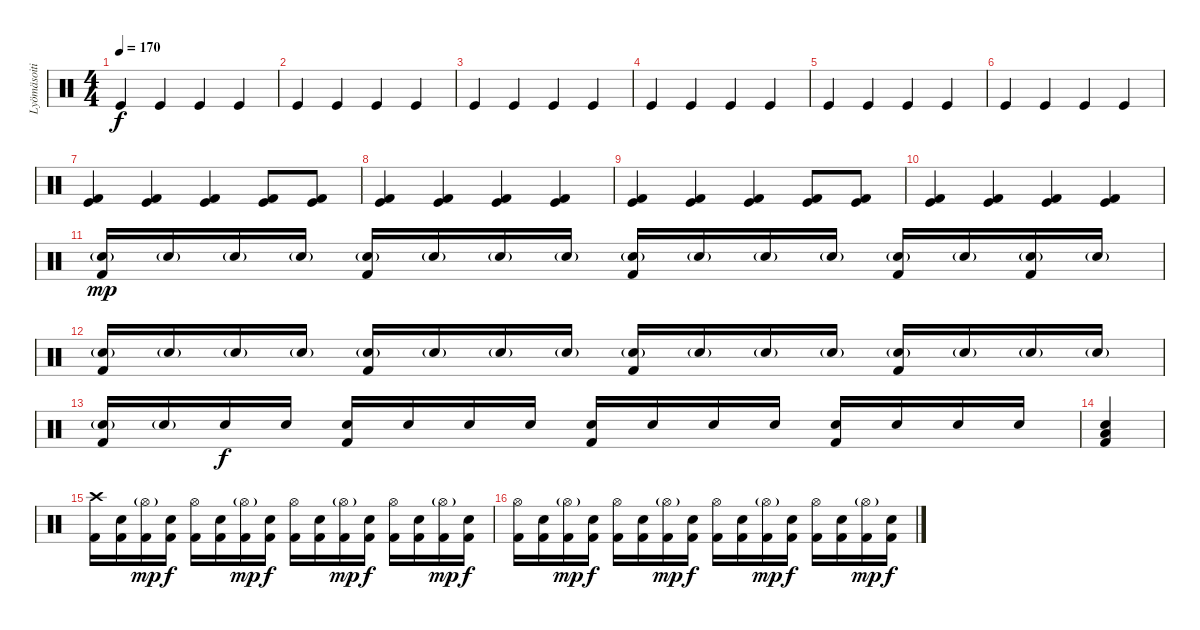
\track ("Lyömäsoitin" "Lyömäsoiti") {instrument percussion}
\staff {score}
\articulation defaults
\ts (4 4)
\tempo 170
\clef neutral
\ks c "Kick (hit)".4{dy f} "Kick (hit)".4 "Kick (hit)".4 "Kick (hit)".4
|
"Kick (hit)".4 "Kick (hit)".4 "Kick (hit)".4 "Kick (hit)".4 |
"Kick (hit)".4 "Kick (hit)".4 "Kick (hit)".4 "Kick (hit)".4 |
"Kick (hit)".4 "Kick (hit)".4 "Kick (hit)".4 "Kick (hit)".4 |
"Kick (hit)".4 "Kick (hit)".4 "Kick (hit)".4 "Kick (hit)".4 |
"Kick (hit)".4 "Kick (hit)".4 "Kick (hit)".4 "Kick (hit)".4 |
("Kick (hit)" "Kick (hit) 2").4 ("Kick (hit)" "Kick (hit) 2").4 ("Kick (hit)" "Kick (hit) 2").4 ("Kick (hit)" "Kick (hit) 2").8 ("Kick (hit)" "Kick (hit) 2").8 |
("Kick (hit)" "Kick (hit) 2").4 ("Kick (hit)" "Kick (hit) 2").4 ("Kick (hit)" "Kick (hit) 2").4 ("Kick (hit)" "Kick (hit) 2").4 |
("Kick (hit)" "Kick (hit) 2").4 ("Kick (hit)" "Kick (hit) 2").4 ("Kick (hit)" "Kick (hit) 2").4 ("Kick (hit)" "Kick (hit) 2").8 ("Kick (hit)" "Kick (hit) 2").8 |
("Kick (hit)" "Kick (hit) 2").4 ("Kick (hit)" "Kick (hit) 2").4 ("Kick (hit)" "Kick (hit) 2").4 ("Kick (hit)" "Kick (hit) 2").4 |
("Kick (hit) 2" "Electric Snare (hit)"{g}).16{dy mp} "Electric Snare (hit)"{g}.16 "Electric Snare (hit)"{g}.16 "Electric Snare (hit)"{g}.16 ("Kick (hit) 2" "Electric Snare (hit)"{g}).16 "Electric Snare (hit)"{g}.16 "Electric Snare (hit)"{g}.16 "Electric Snare (hit)"{g}.16 ("Kick (hit) 2" "Electric Snare (hit)"{g}).16 "Electric Snare (hit)"{g}.16 "Electric Snare (hit)"{g}.16 "Electric Snare (hit)"{g}.16 ("Kick (hit) 2" "Electric Snare (hit)"{g}).16 "Electric Snare (hit)"{g}.16 ("Kick (hit) 2" "Electric Snare (hit)"{g}).16 "Electric Snare (hit)"{g}.16 |
("Kick (hit) 2" "Electric Snare (hit)"{g}).16 "Electric Snare (hit)"{g}.16 "Electric Snare (hit)"{g}.16 "Electric Snare (hit)"{g}.16 ("Kick (hit) 2" "Electric Snare (hit)"{g}).16 "Electric Snare (hit)"{g}.16 "Electric Snare (hit)"{g}.16 "Electric Snare (hit)"{g}.16 ("Kick (hit) 2" "Electric Snare (hit)"{g}).16 "Electric Snare (hit)"{g}.16 "Electric Snare (hit)"{g}.16 "Electric Snare (hit)"{g}.16 ("Kick (hit) 2" "Electric Snare (hit)"{g}).16 "Electric Snare (hit)"{g}.16 "Electric Snare (hit)"{g}.16 "Electric Snare (hit)"{g}.16 |
("Kick (hit) 2" "Electric Snare (hit)"{g}).16 "Electric Snare (hit)"{g}.16 "Electric Snare (hit)".16{dy f} "Electric Snare (hit)".16 ("Kick (hit) 2" "Electric Snare (hit)").16 "Electric Snare (hit)".16 "Electric Snare (hit)".16 "Electric Snare (hit)".16 ("Kick (hit) 2" "Electric Snare (hit)").16 "Electric Snare (hit)".16 "Electric Snare (hit)".16 "Electric Snare (hit)".16 ("Kick (hit) 2" "Electric Snare (hit)").16 "Electric Snare (hit)".16 "Electric Snare (hit)".16 "Electric Snare (hit)".16 |
("Kick (hit) 2" "Electric Snare (hit)" "Low Tom (hit)").4 |
("Kick (hit) 2" "Crash high (hit)").16 ("Kick (hit) 2" "Electric Snare (hit)").16 ("Kick (hit) 2" "Hi-Hat (open)"{g}).16{dy mp} ("Kick (hit) 2" "Electric Snare (hit)").16{dy f} ("Kick (hit) 2" "Hi-Hat (open)").16 ("Kick (hit) 2" "Electric Snare (hit)").16 ("Kick (hit) 2" "Hi-Hat (open)"{g}).16{dy mp} ("Kick (hit) 2" "Electric Snare (hit)").16{dy f} ("Kick (hit) 2" "Hi-Hat (open)").16 ("Kick (hit) 2" "Electric Snare (hit)").16 ("Kick (hit) 2" "Hi-Hat (open)"{g}).16{dy mp} ("Kick (hit) 2" "Electric Snare (hit)").16{dy f} ("Kick (hit) 2" "Hi-Hat (open)").16 ("Kick (hit) 2" "Electric Snare (hit)").16 ("Kick (hit) 2" "Hi-Hat (open)"{g}).16{dy mp} ("Kick (hit) 2" "Electric Snare (hit)").16{dy f} |
("Kick (hit) 2" "Hi-Hat (open)").16 ("Kick (hit) 2" "Electric Snare (hit)").16 ("Kick (hit) 2" "Hi-Hat (open)"{g}).16{dy mp} ("Kick (hit) 2" "Electric Snare (hit)").16{dy f} ("Kick (hit) 2" "Hi-Hat (open)").16 ("Kick (hit) 2" "Electric Snare (hit)").16 ("Kick (hit) 2" "Hi-Hat (open)"{g}).16{dy mp} ("Kick (hit) 2" "Electric Snare (hit)").16{dy f} ("Kick (hit) 2" "Hi-Hat (open)").16 ("Kick (hit) 2" "Electric Snare (hit)").16 ("Kick (hit) 2" "Hi-Hat (open)"{g}).16{dy mp} ("Kick (hit) 2" "Electric Snare (hit)").16{dy f} ("Kick (hit) 2" "Hi-Hat (open)").16 ("Kick (hit) 2" "Electric Snare (hit)").16 ("Kick (hit) 2" "Hi-Hat (open)"{g}).16{dy mp} ("Kick (hit) 2" "Electric Snare (hit)").16{dy f}
